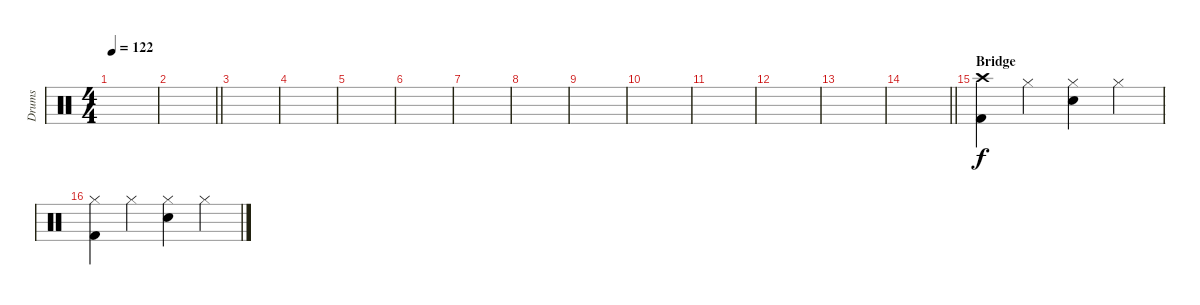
\track ("Drums" "Drums") {instrument percussion}
\staff {score}
\articulation defaults
\ts (4 4)
\tempo 122
\clef neutral
\ks c
|
\barLineRight lightlight
|
|
|
|
|
|
|
|
|
|
|
|
\barLineRight lightlight
|
\section ("" "Bridge")
("Crash high (hit)" "Kick (hit) 2").4 "Hi-Hat (closed)".4 ("Hi-Hat (closed)" "Electric Snare (hit)").4 "Hi-Hat (closed)".4 |
("Hi-Hat (closed)" "Kick (hit) 2").4 "Hi-Hat (closed)".4 ("Hi-Hat (closed)" "Electric Snare (hit)").4 "Hi-Hat (closed)".4
